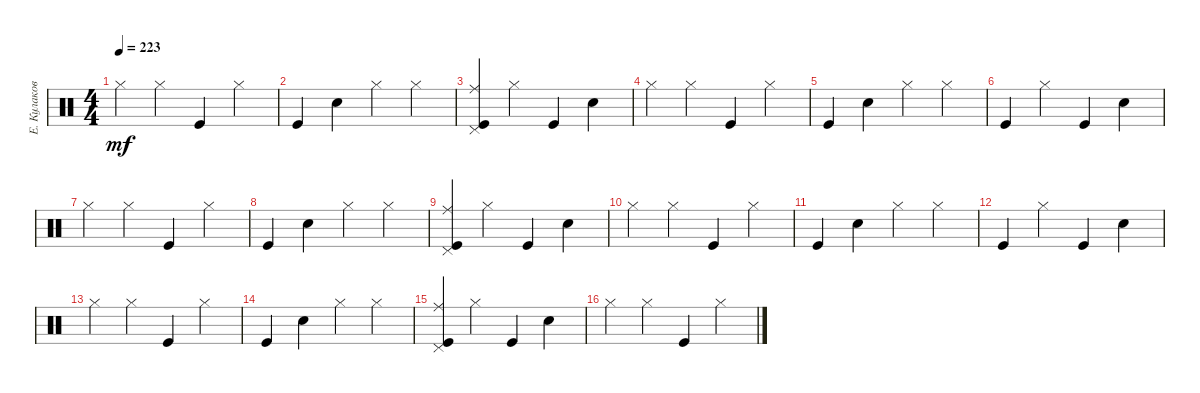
\track ("Е. Кулаков" "Е. Кулаков") {instrument percussion}
\staff {score}
\articulation defaults
\ts (4 4)
\tempo 223
\clef neutral
\ks c "Hi-Hat (closed)".4{dy mf} "Hi-Hat (closed)".4 "Kick (hit)".4 "Hi-Hat (closed)".4
|
"Kick (hit)".4 "Snare (hit) 2".4 "Hi-Hat (closed)".4 "Hi-Hat (closed)".4 |
("Kick (hit)" "Ride (middle)" "Pedal Hi-Hat (hit)").4 "Hi-Hat (closed)".4 "Kick (hit)".4 "Snare (hit) 2".4 |
"Hi-Hat (closed)".4 "Hi-Hat (closed)".4 "Kick (hit)".4 "Hi-Hat (closed)".4 |
"Kick (hit)".4 "Snare (hit) 2".4 "Hi-Hat (closed)".4 "Hi-Hat (closed)".4 |
"Kick (hit)".4 "Hi-Hat (closed)".4 "Kick (hit)".4 "Snare (hit) 2".4 |
"Hi-Hat (closed)".4 "Hi-Hat (closed)".4 "Kick (hit)".4 "Hi-Hat (closed)".4 |
"Kick (hit)".4 "Snare (hit) 2".4 "Hi-Hat (closed)".4 "Hi-Hat (closed)".4 |
("Kick (hit)" "Ride (middle)" "Pedal Hi-Hat (hit)").4 "Hi-Hat (closed)".4 "Kick (hit)".4 "Snare (hit) 2".4 |
"Hi-Hat (closed)".4 "Hi-Hat (closed)".4 "Kick (hit)".4 "Hi-Hat (closed)".4 |
"Kick (hit)".4 "Snare (hit) 2".4 "Hi-Hat (closed)".4 "Hi-Hat (closed)".4 |
"Kick (hit)".4 "Hi-Hat (closed)".4 "Kick (hit)".4 "Snare (hit) 2".4 |
"Hi-Hat (closed)".4 "Hi-Hat (closed)".4 "Kick (hit)".4 "Hi-Hat (closed)".4 |
"Kick (hit)".4 "Snare (hit) 2".4 "Hi-Hat (closed)".4 "Hi-Hat (closed)".4 |
("Kick (hit)" "Ride (middle)" "Pedal Hi-Hat (hit)").4 "Hi-Hat (closed)".4 "Kick (hit)".4 "Snare (hit) 2".4 |
"Hi-Hat (closed)".4 "Hi-Hat (closed)".4 "Kick (hit)".4 "Hi-Hat (closed)".4
